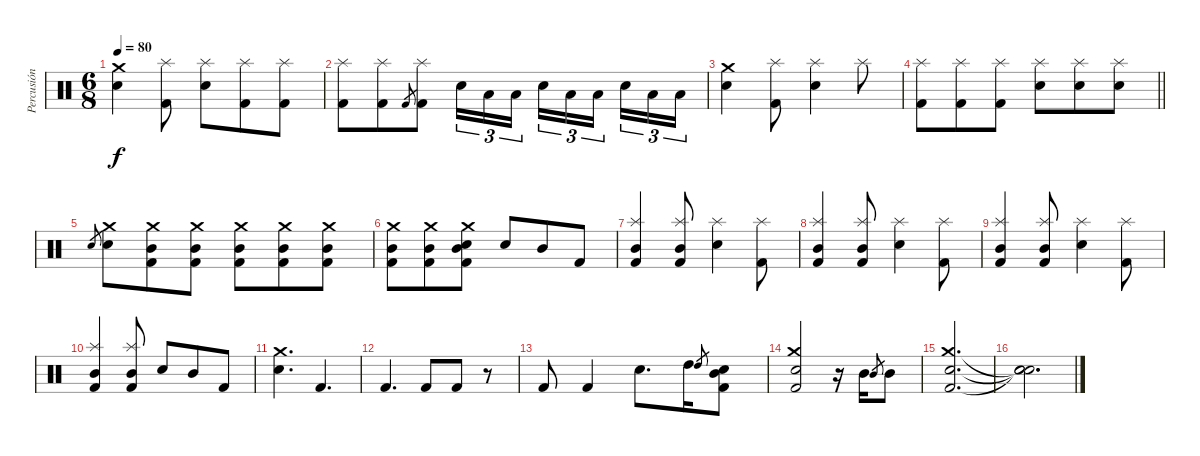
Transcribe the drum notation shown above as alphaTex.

\track ("Percusión" "Percusión") {instrument percussion}
\staff {score}
\articulation defaults
\ts (6 8)
\tempo 80
\clef neutral
\ks c
("Snare (hit) 2" "Crash medium (hit)").4{dy f} ("Kick (hit) 2" "Splash (hit)").8 ("Snare (hit) 2" "Splash (hit)").8 ("Kick (hit) 2" "Splash (hit)").8 ("Kick (hit) 2" "Splash (hit)").8 |
("Kick (hit) 2" "Splash (hit)").8 ("Kick (hit) 2" "Splash (hit)").8 "Kick (hit) 2".8{gr} ("Kick (hit) 2" "Splash (hit)").8 "Snare (hit) 2".16{tu (3 2)} "Low Tom (hit)".16{tu (3 2)} "Low Tom (hit)".16{tu (3 2) beam splitsecondary} "Snare (hit) 2".16{tu (3 2)} "Low Tom (hit)".16{tu (3 2)} "Low Tom (hit)".16{tu (3 2) beam splitsecondary} "Snare (hit) 2".16{tu (3 2)} "Low Tom (hit)".16{tu (3 2)} "Low Tom (hit)".16{tu (3 2)} |
("Snare (hit) 2" "Crash medium (hit)").4 ("Kick (hit) 2" "Splash (hit)").8 ("Snare (hit) 2" "Splash (hit)").4 "Splash (hit)".8 |
\barLineRight lightlight
("Kick (hit) 2" "Splash (hit)").8 ("Kick (hit) 2" "Splash (hit)").8 ("Kick (hit) 2" "Splash (hit)").8 ("Snare (hit) 2" "Splash (hit)").8 ("Snare (hit) 2" "Splash (hit)").8 ("Snare (hit) 2" "Splash (hit)").8 |
"Snare (hit) 2".8{gr} ("Snare (hit) 2" "Crash medium (hit)").8 ("Kick (hit) 2" "Mid Tom (hit)" "Crash medium (hit)").8 ("Kick (hit) 2" "Mid Tom (hit)" "Crash medium (hit)").8 ("Kick (hit) 2" "Mid Tom (hit)" "Crash medium (hit)").8 ("Kick (hit) 2" "Mid Tom (hit)" "Crash medium (hit)").8 ("Kick (hit) 2" "Mid Tom (hit)" "Crash medium (hit)").8 |
("Kick (hit) 2" "Mid Tom (hit)" "Crash medium (hit)").8 ("Kick (hit) 2" "Mid Tom (hit)" "Crash medium (hit)").8 ("Kick (hit) 2" "Mid Tom (hit)" "Snare (hit) 2" "Crash medium (hit)").8 "Snare (hit) 2".8 "Mid Tom (hit)".8 "Kick (hit) 2".8 |
("Kick (hit) 2" "Mid Tom (hit)" "Splash (hit)").4 ("Kick (hit) 2" "Mid Tom (hit)" "Splash (hit)").8 ("Snare (hit) 2" "Splash (hit)").4 ("Kick (hit) 2" "Splash (hit)").8 |
("Kick (hit) 2" "Mid Tom (hit)" "Splash (hit)").4 ("Kick (hit) 2" "Mid Tom (hit)" "Splash (hit)").8 ("Snare (hit) 2" "Splash (hit)").4 ("Kick (hit) 2" "Splash (hit)").8 |
("Kick (hit) 2" "Mid Tom (hit)" "Splash (hit)").4 ("Kick (hit) 2" "Mid Tom (hit)" "Splash (hit)").8 ("Snare (hit) 2" "Splash (hit)").4 ("Kick (hit) 2" "Splash (hit)").8 |
("Kick (hit) 2" "Mid Tom (hit)" "Splash (hit)").4 ("Kick (hit) 2" "Mid Tom (hit)" "Splash (hit)").8 "Snare (hit) 2".8 "Mid Tom (hit)".8 "Kick (hit) 2".8 |
("Snare (hit) 2" "Crash medium (hit)").4{d} "Kick (hit) 2".4{d} |
"Kick (hit) 2".4{d} "Kick (hit) 2".8 "Kick (hit) 2".8 r.8 |
"Kick (hit) 2".8 "Kick (hit) 2".4 "Electric Snare (hit)".8{d} "High Tom (hit)".16 "High Tom (hit)".8{gr} ("Snare (hit) 2" "Kick (hit) 2" "Mid Tom (hit)").8 |
("Snare (hit) 2" "Crash medium (hit)" "Kick (hit) 2").2 r.16 "Mid Tom (hit)".16 "Mid Tom (hit)".8{gr} "Mid Tom (hit)".8 |
("Snare (hit) 2" "Crash medium (hit)" "Kick (hit) 2").2{d} |
("Snare (hit)"{t} "Snare (hit)"{t} "Snare (hit)"{t}).2{d}
